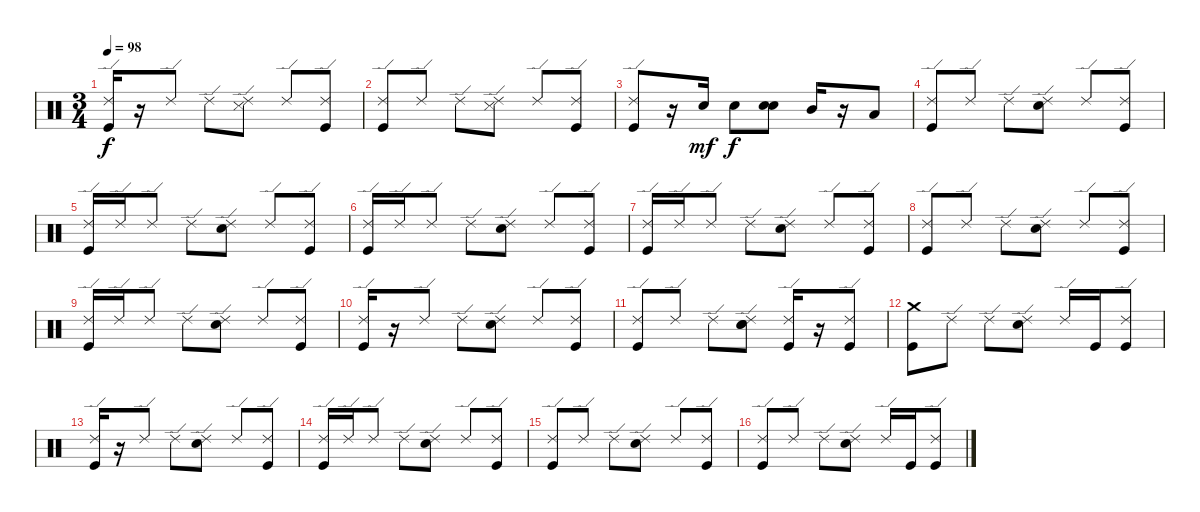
\track "" {instrument percussion}
\staff {score}
\articulation defaults
\ts (3 4)
\tempo 98
\clef neutral
\ks c
("Ride (edge) 2" "Kick (hit)").16{dy f} r.16 "Ride (edge) 2".8 "Ride (edge) 2".8 ("Ride (edge) 2" "Snare (side stick) 3").8 "Ride (edge) 2".8 ("Ride (edge) 2" "Kick (hit)").8 |
("Ride (edge) 2" "Kick (hit)").8 "Ride (edge) 2".8 "Ride (edge) 2".8 ("Ride (edge) 2" "Snare (side stick) 3").8 "Ride (edge) 2".8 ("Ride (edge) 2" "Kick (hit)").8 |
("Ride (edge) 2" "Kick (hit)").8 r.16 "Electric Snare (hit)".16{dy mf} "Electric Snare (hit)".8{dy f} ("Electric Snare (hit)" "Electric Snare (hit)").8 "Mid Tom (hit)".16 r.16 "Low Tom (hit)".8 |
("Ride (edge) 2" "Kick (hit)").8 "Ride (edge) 2".8 "Ride (edge) 2".8 ("Ride (edge) 2" "Electric Snare (hit)").8 "Ride (edge) 2".8 ("Ride (edge) 2" "Kick (hit)").8 |
("Ride (edge) 2" "Kick (hit)").16 "Ride (edge) 2".16 "Ride (edge) 2".8 "Ride (edge) 2".8 ("Ride (edge) 2" "Electric Snare (hit)").8 "Ride (edge) 2".8 ("Ride (edge) 2" "Kick (hit)").8 |
("Ride (edge) 2" "Kick (hit)").16 "Ride (edge) 2".16 "Ride (edge) 2".8 "Ride (edge) 2".8 ("Ride (edge) 2" "Electric Snare (hit)").8 "Ride (edge) 2".8 ("Ride (edge) 2" "Kick (hit)").8 |
("Ride (edge) 2" "Kick (hit)").16 "Ride (edge) 2".16 "Ride (edge) 2".8 "Ride (edge) 2".8 ("Ride (edge) 2" "Electric Snare (hit)").8 "Ride (edge) 2".8 ("Ride (edge) 2" "Kick (hit)").8 |
("Ride (edge) 2" "Kick (hit)").8 "Ride (edge) 2".8 "Ride (edge) 2".8 ("Ride (edge) 2" "Electric Snare (hit)").8 "Ride (edge) 2".8 ("Ride (edge) 2" "Kick (hit)").8 |
("Ride (edge) 2" "Kick (hit)").16 "Ride (edge) 2".16 "Ride (edge) 2".8 "Ride (edge) 2".8 ("Ride (edge) 2" "Electric Snare (hit)").8 "Ride (edge) 2".8 ("Ride (edge) 2" "Kick (hit)").8 |
("Ride (edge) 2" "Kick (hit)").16 r.16 "Ride (edge) 2".8 "Ride (edge) 2".8 ("Ride (edge) 2" "Electric Snare (hit)").8 "Ride (edge) 2".8 ("Ride (edge) 2" "Kick (hit)").8 |
("Ride (edge) 2" "Kick (hit)").8 "Ride (edge) 2".8 "Ride (edge) 2".8 ("Electric Snare (hit)" "Ride (edge) 2" "Electric Snare (hit)").8 ("Ride (edge) 2" "Kick (hit)").16 r.16 ("Ride (edge) 2" "Kick (hit)").8 |
("Crash medium (hit)" "Kick (hit)").8 "Ride (edge) 2".8 "Ride (edge) 2".8 ("Ride (edge) 2" "Electric Snare (hit)").8 "Ride (edge) 2".16 "Kick (hit)".16 ("Ride (edge) 2" "Kick (hit)").8 |
("Ride (edge) 2" "Kick (hit)").16 r.16 "Ride (edge) 2".8 "Ride (edge) 2".8 ("Ride (edge) 2" "Electric Snare (hit)").8 "Ride (edge) 2".8 ("Ride (edge) 2" "Kick (hit)").8 |
("Ride (edge) 2" "Kick (hit)").16 "Ride (edge) 2".16 "Ride (edge) 2".8 "Ride (edge) 2".8 ("Ride (edge) 2" "Electric Snare (hit)").8 "Ride (edge) 2".8 ("Ride (edge) 2" "Kick (hit)").8 |
("Ride (edge) 2" "Kick (hit)").8 "Ride (edge) 2".8 "Ride (edge) 2".8 ("Ride (edge) 2" "Electric Snare (hit)").8 "Ride (edge) 2".8 ("Ride (edge) 2" "Kick (hit)").8 |
("Ride (edge) 2" "Kick (hit)").8 "Ride (edge) 2".8 "Ride (edge) 2".8 ("Ride (edge) 2" "Electric Snare (hit)").8 "Ride (edge) 2".16 "Kick (hit)".16 ("Ride (edge) 2" "Kick (hit)").8
